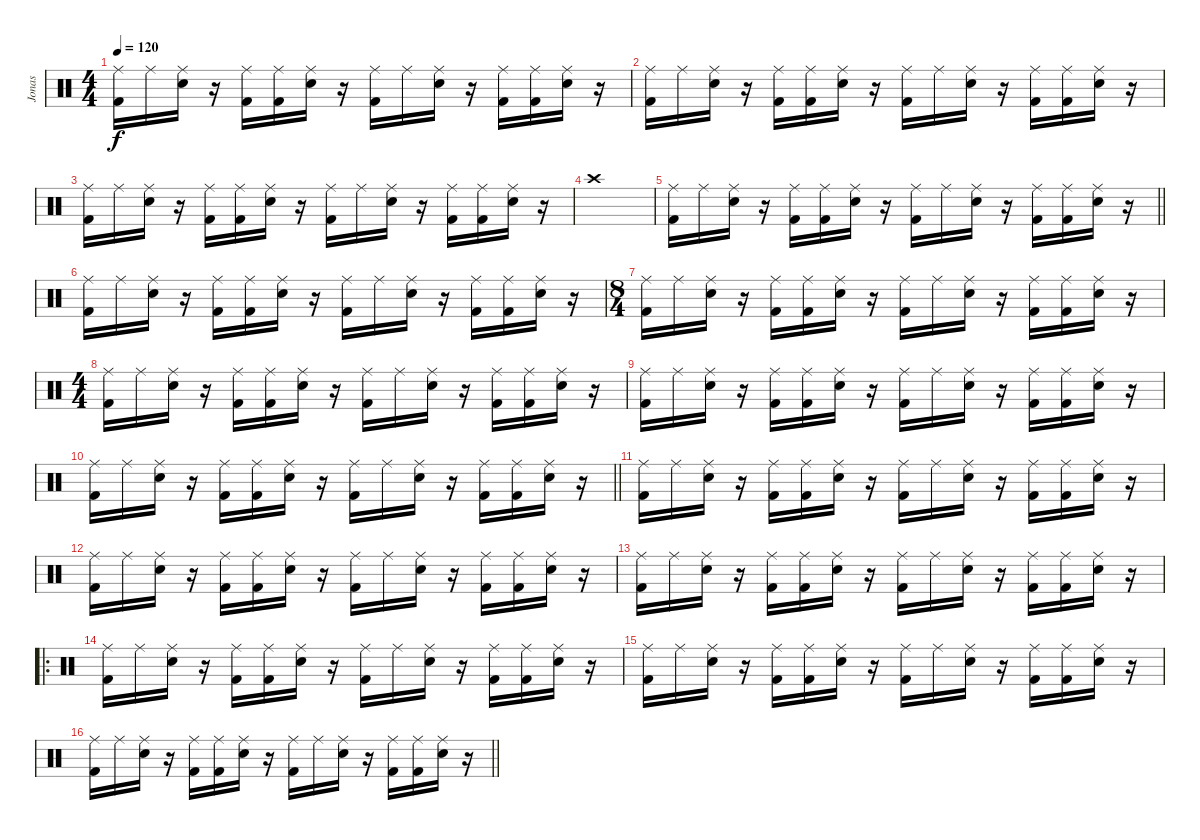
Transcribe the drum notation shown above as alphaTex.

\track ("Jonas" "Jonas") {instrument percussion}
\staff {score}
\articulation defaults
\ts (4 4)
\tempo 120
\clef neutral
\ks c
("Ride (middle)" "Kick (hit) 2").16{dy f} "Ride (middle)".16 ("Ride (middle)" "Snare (hit) 2").16 r.16 ("Ride (middle)" "Kick (hit) 2").16 ("Ride (middle)" "Kick (hit) 2").16 ("Ride (middle)" "Snare (hit) 2").16 r.16 ("Ride (middle)" "Kick (hit) 2").16 "Ride (middle)".16 ("Ride (middle)" "Snare (hit) 2").16 r.16 ("Ride (middle)" "Kick (hit) 2").16 ("Ride (middle)" "Kick (hit) 2").16 ("Ride (middle)" "Snare (hit) 2").16 r.16 |
("Ride (middle)" "Kick (hit) 2").16 "Ride (middle)".16 ("Ride (middle)" "Snare (hit) 2").16 r.16 ("Ride (middle)" "Kick (hit) 2").16 ("Ride (middle)" "Kick (hit) 2").16 ("Ride (middle)" "Snare (hit) 2").16 r.16 ("Ride (middle)" "Kick (hit) 2").16 "Ride (middle)".16 ("Ride (middle)" "Snare (hit) 2").16 r.16 ("Ride (middle)" "Kick (hit) 2").16 ("Ride (middle)" "Kick (hit) 2").16 ("Ride (middle)" "Snare (hit) 2").16 r.16 |
("Ride (middle)" "Kick (hit) 2").16 "Ride (middle)".16 ("Ride (middle)" "Snare (hit) 2").16 r.16 ("Ride (middle)" "Kick (hit) 2").16 ("Ride (middle)" "Kick (hit) 2").16 ("Ride (middle)" "Snare (hit) 2").16 r.16 ("Ride (middle)" "Kick (hit) 2").16 "Ride (middle)".16 ("Ride (middle)" "Snare (hit) 2").16 r.16 ("Ride (middle)" "Kick (hit) 2").16 ("Ride (middle)" "Kick (hit) 2").16 ("Ride (middle)" "Snare (hit) 2").16 r.16 |
"Crash high (hit)".1 |
\barLineRight lightlight
("Ride (middle)" "Kick (hit) 2").16 "Ride (middle)".16 ("Ride (middle)" "Snare (hit) 2").16 r.16 ("Ride (middle)" "Kick (hit) 2").16 ("Ride (middle)" "Kick (hit) 2").16 ("Ride (middle)" "Snare (hit) 2").16 r.16 ("Ride (middle)" "Kick (hit) 2").16 "Ride (middle)".16 ("Ride (middle)" "Snare (hit) 2").16 r.16 ("Ride (middle)" "Kick (hit) 2").16 ("Ride (middle)" "Kick (hit) 2").16 ("Ride (middle)" "Snare (hit) 2").16 r.16 |
("Ride (middle)" "Kick (hit) 2").16 "Ride (middle)".16 ("Ride (middle)" "Snare (hit) 2").16 r.16 ("Ride (middle)" "Kick (hit) 2").16 ("Ride (middle)" "Kick (hit) 2").16 ("Ride (middle)" "Snare (hit) 2").16 r.16 ("Ride (middle)" "Kick (hit) 2").16 "Ride (middle)".16 ("Ride (middle)" "Snare (hit) 2").16 r.16 ("Ride (middle)" "Kick (hit) 2").16 ("Ride (middle)" "Kick (hit) 2").16 ("Ride (middle)" "Snare (hit) 2").16 r.16 |
\ts (8 4)
("Ride (middle)" "Kick (hit) 2").16 "Ride (middle)".16 ("Ride (middle)" "Snare (hit) 2").16 r.16 ("Ride (middle)" "Kick (hit) 2").16 ("Ride (middle)" "Kick (hit) 2").16 ("Ride (middle)" "Snare (hit) 2").16 r.16 ("Ride (middle)" "Kick (hit) 2").16 "Ride (middle)".16 ("Ride (middle)" "Snare (hit) 2").16 r.16 ("Ride (middle)" "Kick (hit) 2").16 ("Ride (middle)" "Kick (hit) 2").16 ("Ride (middle)" "Snare (hit) 2").16 r.16 |
\ts (4 4)
("Ride (middle)" "Kick (hit) 2").16 "Ride (middle)".16 ("Ride (middle)" "Snare (hit) 2").16 r.16 ("Ride (middle)" "Kick (hit) 2").16 ("Ride (middle)" "Kick (hit) 2").16 ("Ride (middle)" "Snare (hit) 2").16 r.16 ("Ride (middle)" "Kick (hit) 2").16 "Ride (middle)".16 ("Ride (middle)" "Snare (hit) 2").16 r.16 ("Ride (middle)" "Kick (hit) 2").16 ("Ride (middle)" "Kick (hit) 2").16 ("Ride (middle)" "Snare (hit) 2").16 r.16 |
("Ride (middle)" "Kick (hit) 2").16 "Ride (middle)".16 ("Ride (middle)" "Snare (hit) 2").16 r.16 ("Ride (middle)" "Kick (hit) 2").16 ("Ride (middle)" "Kick (hit) 2").16 ("Ride (middle)" "Snare (hit) 2").16 r.16 ("Ride (middle)" "Kick (hit) 2").16 "Ride (middle)".16 ("Ride (middle)" "Snare (hit) 2").16 r.16 ("Ride (middle)" "Kick (hit) 2").16 ("Ride (middle)" "Kick (hit) 2").16 ("Ride (middle)" "Snare (hit) 2").16 r.16 |
\barLineRight lightlight
("Ride (middle)" "Kick (hit) 2").16 "Ride (middle)".16 ("Ride (middle)" "Snare (hit) 2").16 r.16 ("Ride (middle)" "Kick (hit) 2").16 ("Ride (middle)" "Kick (hit) 2").16 ("Ride (middle)" "Snare (hit) 2").16 r.16 ("Ride (middle)" "Kick (hit) 2").16 "Ride (middle)".16 ("Ride (middle)" "Snare (hit) 2").16 r.16 ("Ride (middle)" "Kick (hit) 2").16 ("Ride (middle)" "Kick (hit) 2").16 ("Ride (middle)" "Snare (hit) 2").16 r.16 |
("Ride (middle)" "Kick (hit) 2").16 "Ride (middle)".16 ("Ride (middle)" "Snare (hit) 2").16 r.16 ("Ride (middle)" "Kick (hit) 2").16 ("Ride (middle)" "Kick (hit) 2").16 ("Ride (middle)" "Snare (hit) 2").16 r.16 ("Ride (middle)" "Kick (hit) 2").16 "Ride (middle)".16 ("Ride (middle)" "Snare (hit) 2").16 r.16 ("Ride (middle)" "Kick (hit) 2").16 ("Ride (middle)" "Kick (hit) 2").16 ("Ride (middle)" "Snare (hit) 2").16 r.16 |
("Ride (middle)" "Kick (hit) 2").16 "Ride (middle)".16 ("Ride (middle)" "Snare (hit) 2").16 r.16 ("Ride (middle)" "Kick (hit) 2").16 ("Ride (middle)" "Kick (hit) 2").16 ("Ride (middle)" "Snare (hit) 2").16 r.16 ("Ride (middle)" "Kick (hit) 2").16 "Ride (middle)".16 ("Ride (middle)" "Snare (hit) 2").16 r.16 ("Ride (middle)" "Kick (hit) 2").16 ("Ride (middle)" "Kick (hit) 2").16 ("Ride (middle)" "Snare (hit) 2").16 r.16 |
("Ride (middle)" "Kick (hit) 2").16 "Ride (middle)".16 ("Ride (middle)" "Snare (hit) 2").16 r.16 ("Ride (middle)" "Kick (hit) 2").16 ("Ride (middle)" "Kick (hit) 2").16 ("Ride (middle)" "Snare (hit) 2").16 r.16 ("Ride (middle)" "Kick (hit) 2").16 "Ride (middle)".16 ("Ride (middle)" "Snare (hit) 2").16 r.16 ("Ride (middle)" "Kick (hit) 2").16 ("Ride (middle)" "Kick (hit) 2").16 ("Ride (middle)" "Snare (hit) 2").16 r.16 |
\ro
("Ride (middle)" "Kick (hit) 2").16 "Ride (middle)".16 ("Ride (middle)" "Snare (hit) 2").16 r.16 ("Ride (middle)" "Kick (hit) 2").16 ("Ride (middle)" "Kick (hit) 2").16 ("Ride (middle)" "Snare (hit) 2").16 r.16 ("Ride (middle)" "Kick (hit) 2").16 "Ride (middle)".16 ("Ride (middle)" "Snare (hit) 2").16 r.16 ("Ride (middle)" "Kick (hit) 2").16 ("Ride (middle)" "Kick (hit) 2").16 ("Ride (middle)" "Snare (hit) 2").16 r.16 |
("Ride (middle)" "Kick (hit) 2").16 "Ride (middle)".16 ("Ride (middle)" "Snare (hit) 2").16 r.16 ("Ride (middle)" "Kick (hit) 2").16 ("Ride (middle)" "Kick (hit) 2").16 ("Ride (middle)" "Snare (hit) 2").16 r.16 ("Ride (middle)" "Kick (hit) 2").16 "Ride (middle)".16 ("Ride (middle)" "Snare (hit) 2").16 r.16 ("Ride (middle)" "Kick (hit) 2").16 ("Ride (middle)" "Kick (hit) 2").16 ("Ride (middle)" "Snare (hit) 2").16 r.16 |
\barLineRight lightlight
("Ride (middle)" "Kick (hit) 2").16 "Ride (middle)".16 ("Ride (middle)" "Snare (hit) 2").16 r.16 ("Ride (middle)" "Kick (hit) 2").16 ("Ride (middle)" "Kick (hit) 2").16 ("Ride (middle)" "Snare (hit) 2").16 r.16 ("Ride (middle)" "Kick (hit) 2").16 "Ride (middle)".16 ("Ride (middle)" "Snare (hit) 2").16 r.16 ("Ride (middle)" "Kick (hit) 2").16 ("Ride (middle)" "Kick (hit) 2").16 ("Ride (middle)" "Snare (hit) 2").16 r.16
